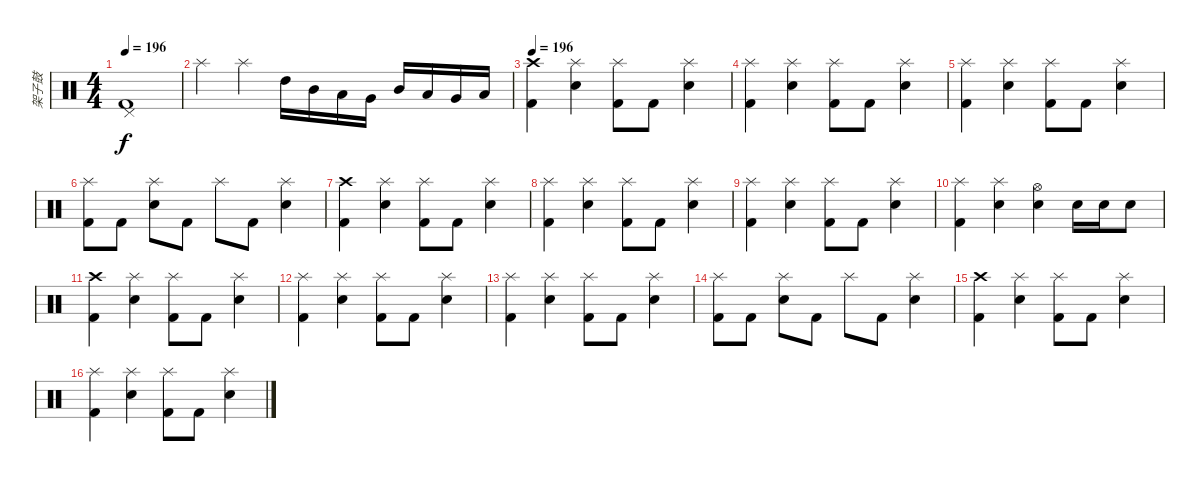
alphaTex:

\track ("架子鼓" "架子鼓") {instrument percussion}
\staff {score}
\articulation defaults
\ts (4 4)
\tempo 196
\clef neutral
\ks c
("Pedal Hi-Hat (hit)" "Kick (hit) 2").1{dy f} |
"Splash (hit)".4 "Splash (hit)".4 "High Tom (hit)".16 "Mid Tom (hit)".16 "Low Tom (hit)".16 "Very Low Tom (hit)".16 "Mid Tom (hit)".16 "Low Tom (hit)".16 "Very Low Tom (hit)".16 "Low Floor Tom (hit)".16 |
\tempo 196
("Crash high (hit)" "Kick (hit) 2").4 ("Splash (hit)" "Snare (hit) 2").4 ("Splash (hit)" "Kick (hit) 2").8 "Kick (hit) 2".8 ("Splash (hit)" "Snare (hit) 2").4 |
("Splash (hit)" "Kick (hit) 2").4 ("Splash (hit)" "Snare (hit) 2").4 ("Splash (hit)" "Kick (hit) 2").8 "Kick (hit) 2".8 ("Splash (hit)" "Snare (hit) 2").4 |
("Splash (hit)" "Kick (hit) 2").4 ("Splash (hit)" "Snare (hit) 2").4 ("Splash (hit)" "Kick (hit) 2").8 "Kick (hit) 2".8 ("Splash (hit)" "Snare (hit) 2").4 |
("Splash (hit)" "Kick (hit) 2").8 "Kick (hit) 2".8 ("Splash (hit)" "Snare (hit) 2").8 "Kick (hit) 2".8 "Splash (hit)".8 "Kick (hit) 2".8 ("Splash (hit)" "Snare (hit) 2").4 |
("Crash high (hit)" "Kick (hit) 2").4 ("Splash (hit)" "Snare (hit) 2").4 ("Splash (hit)" "Kick (hit) 2").8 "Kick (hit) 2".8 ("Splash (hit)" "Snare (hit) 2").4 |
("Splash (hit)" "Kick (hit) 2").4 ("Splash (hit)" "Snare (hit) 2").4 ("Splash (hit)" "Kick (hit) 2").8 "Kick (hit) 2".8 ("Splash (hit)" "Snare (hit) 2").4 |
("Splash (hit)" "Kick (hit) 2").4 ("Splash (hit)" "Snare (hit) 2").4 ("Splash (hit)" "Kick (hit) 2").8 "Kick (hit) 2".8 ("Splash (hit)" "Snare (hit) 2").4 |
("Splash (hit)" "Kick (hit) 2").4 ("Splash (hit)" "Snare (hit) 2").4 ("Hi-Hat (open)" "Snare (hit) 2").4 "Snare (hit) 2".16 "Snare (hit) 2".16 "Snare (hit) 2".8 |
("Crash high (hit)" "Kick (hit) 2").4 ("Splash (hit)" "Snare (hit) 2").4 ("Splash (hit)" "Kick (hit) 2").8 "Kick (hit) 2".8 ("Splash (hit)" "Snare (hit) 2").4 |
("Splash (hit)" "Kick (hit) 2").4 ("Splash (hit)" "Snare (hit) 2").4 ("Splash (hit)" "Kick (hit) 2").8 "Kick (hit) 2".8 ("Splash (hit)" "Snare (hit) 2").4 |
("Splash (hit)" "Kick (hit) 2").4 ("Splash (hit)" "Snare (hit) 2").4 ("Splash (hit)" "Kick (hit) 2").8 "Kick (hit) 2".8 ("Splash (hit)" "Snare (hit) 2").4 |
("Splash (hit)" "Kick (hit) 2").8 "Kick (hit) 2".8 ("Splash (hit)" "Snare (hit) 2").8 "Kick (hit) 2".8 "Splash (hit)".8 "Kick (hit) 2".8 ("Splash (hit)" "Snare (hit) 2").4 |
("Crash high (hit)" "Kick (hit) 2").4 ("Splash (hit)" "Snare (hit) 2").4 ("Splash (hit)" "Kick (hit) 2").8 "Kick (hit) 2".8 ("Splash (hit)" "Snare (hit) 2").4 |
("Splash (hit)" "Kick (hit) 2").4 ("Splash (hit)" "Snare (hit) 2").4 ("Splash (hit)" "Kick (hit) 2").8 "Kick (hit) 2".8 ("Splash (hit)" "Snare (hit) 2").4
